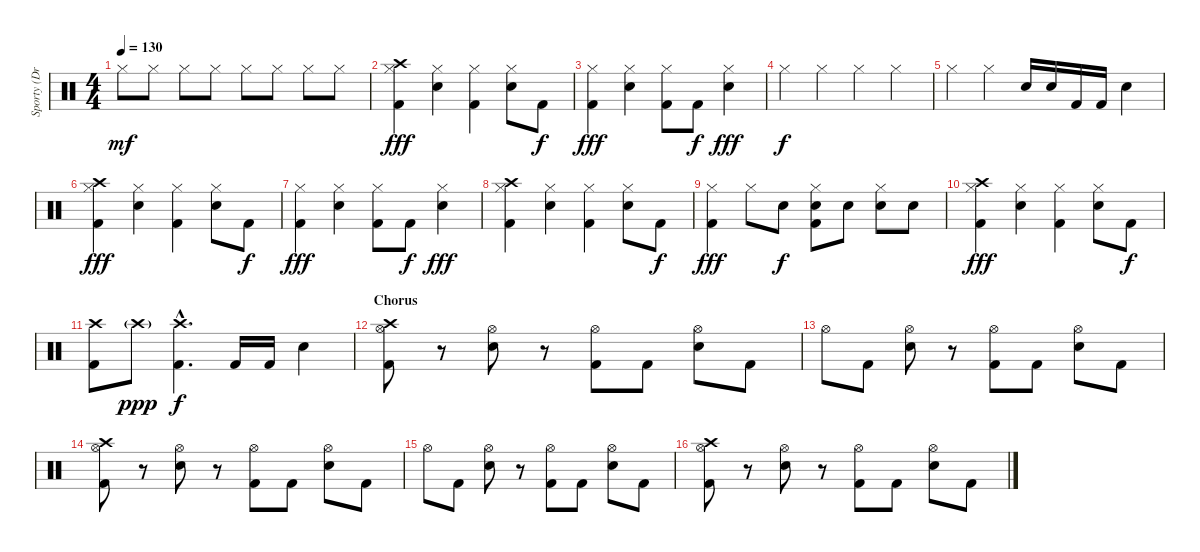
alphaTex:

\track ("Sporty (Drums)" "Sporty (Dr") {instrument percussion}
\staff {score}
\articulation defaults
\ts (4 4)
\tempo 130
\clef neutral
\ks c "Hi-Hat (closed)".8{dy mf} "Hi-Hat (closed)".8 "Hi-Hat (closed)".8 "Hi-Hat (closed)".8 "Hi-Hat (closed)".8 "Hi-Hat (closed)".8 "Hi-Hat (closed)".8 "Hi-Hat (closed)".8
|
("Crash high (hit)" "Hi-Hat (closed)" "Kick (hit) 2").4{dy fff} ("Hi-Hat (closed)" "Snare (hit) 2").4 ("Hi-Hat (closed)" "Kick (hit) 2").4 ("Hi-Hat (closed)" "Snare (hit) 2").8 "Kick (hit) 2".8{dy f} |
("Hi-Hat (closed)" "Kick (hit) 2").4{dy fff} ("Hi-Hat (closed)" "Snare (hit) 2").4 ("Hi-Hat (closed)" "Kick (hit) 2").8 "Kick (hit) 2".8{dy f} ("Hi-Hat (closed)" "Snare (hit) 2").4{dy fff} |
"Hi-Hat (closed)".4{dy f} "Hi-Hat (closed)".4 "Hi-Hat (closed)".4 "Hi-Hat (closed)".4 |
"Hi-Hat (closed)".4 "Hi-Hat (closed)".4 "Snare (hit) 2".16 "Snare (hit) 2".16 "Kick (hit) 2".16 "Kick (hit) 2".16 "Snare (hit) 2".4 |
("Crash high (hit)" "Hi-Hat (closed)" "Kick (hit) 2").4{dy fff} ("Hi-Hat (closed)" "Snare (hit) 2").4 ("Hi-Hat (closed)" "Kick (hit) 2").4 ("Hi-Hat (closed)" "Snare (hit) 2").8 "Kick (hit) 2".8{dy f} |
("Hi-Hat (closed)" "Kick (hit) 2").4{dy fff} ("Hi-Hat (closed)" "Snare (hit) 2").4 ("Hi-Hat (closed)" "Kick (hit) 2").8 "Kick (hit) 2".8{dy f} ("Hi-Hat (closed)" "Snare (hit) 2").4{dy fff} |
("Crash high (hit)" "Hi-Hat (closed)" "Kick (hit) 2").4 ("Hi-Hat (closed)" "Snare (hit) 2").4 ("Hi-Hat (closed)" "Kick (hit) 2").4 ("Hi-Hat (closed)" "Snare (hit) 2").8 "Kick (hit) 2".8{dy f} |
("Hi-Hat (closed)" "Kick (hit) 2").4{dy fff} "Hi-Hat (closed)".8 "Snare (hit) 2".8{dy f} ("Hi-Hat (closed)" "Snare (hit) 2" "Kick (hit) 2").8 "Snare (hit) 2".8 ("Hi-Hat (closed)" "Snare (hit) 2").8 "Snare (hit) 2".8 |
("Crash high (hit)" "Hi-Hat (closed)" "Kick (hit) 2").4{dy fff} ("Hi-Hat (closed)" "Snare (hit) 2").4 ("Hi-Hat (closed)" "Kick (hit) 2").4 ("Hi-Hat (closed)" "Snare (hit) 2").8 "Kick (hit) 2".8{dy f} |
("Crash high (hit)" "Kick (hit) 2").8 "Crash high (hit)"{g}.8{dy ppp} ("Crash high (hit)"{hac} "Kick (hit) 2"{hac}).4{d dy f} "Kick (hit) 2".16 "Kick (hit) 2".16 "Snare (hit) 2".4 |
\section ("" "Chorus")
("Crash high (hit)" "Hi-Hat (open)" "Kick (hit) 2").8 r.8 ("Hi-Hat (open)" "Snare (hit) 2").8 r.8 ("Hi-Hat (open)" "Kick (hit) 2").8 "Kick (hit) 2".8 ("Hi-Hat (open)" "Snare (hit) 2").8 "Kick (hit) 2".8 |
"Hi-Hat (open)".8 "Kick (hit) 2".8 ("Hi-Hat (open)" "Snare (hit) 2").8 r.8 ("Hi-Hat (open)" "Kick (hit) 2").8 "Kick (hit) 2".8 ("Hi-Hat (open)" "Snare (hit) 2").8 "Kick (hit) 2".8 |
("Crash high (hit)" "Hi-Hat (open)" "Kick (hit) 2").8 r.8 ("Hi-Hat (open)" "Snare (hit) 2").8 r.8 ("Hi-Hat (open)" "Kick (hit) 2").8 "Kick (hit) 2".8 ("Hi-Hat (open)" "Snare (hit) 2").8 "Kick (hit) 2".8 |
"Hi-Hat (open)".8 "Kick (hit) 2".8 ("Hi-Hat (open)" "Snare (hit) 2").8 r.8 ("Hi-Hat (open)" "Kick (hit) 2").8 "Kick (hit) 2".8 ("Hi-Hat (open)" "Snare (hit) 2").8 "Kick (hit) 2".8 |
("Crash high (hit)" "Hi-Hat (open)" "Kick (hit) 2").8 r.8 ("Hi-Hat (open)" "Snare (hit) 2").8 r.8 ("Hi-Hat (open)" "Kick (hit) 2").8 "Kick (hit) 2".8 ("Hi-Hat (open)" "Snare (hit) 2").8 "Kick (hit) 2".8
